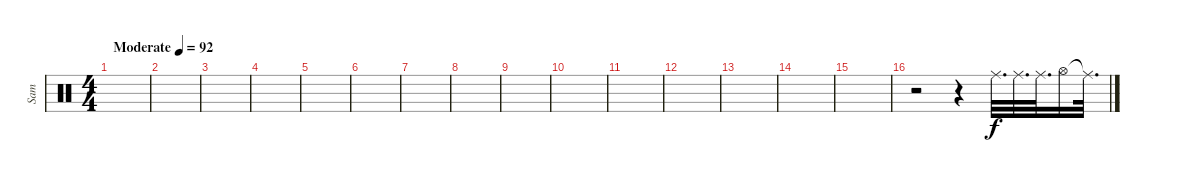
\track ("Sam" "Sam") {instrument percussion}
\staff {score}
\articulation defaults
\ts (4 4)
\tempo (92 "Moderate")
\clef neutral
\ks c
|
|
|
|
|
|
|
|
|
|
|
|
|
|
|
r.2 r.4 "Ride (middle)".32{d} "Ride (middle)".32{d} "Ride (middle)".32{d} "Hi-Hat (open)".16 "Ride (middle)"{t}.32{d}
